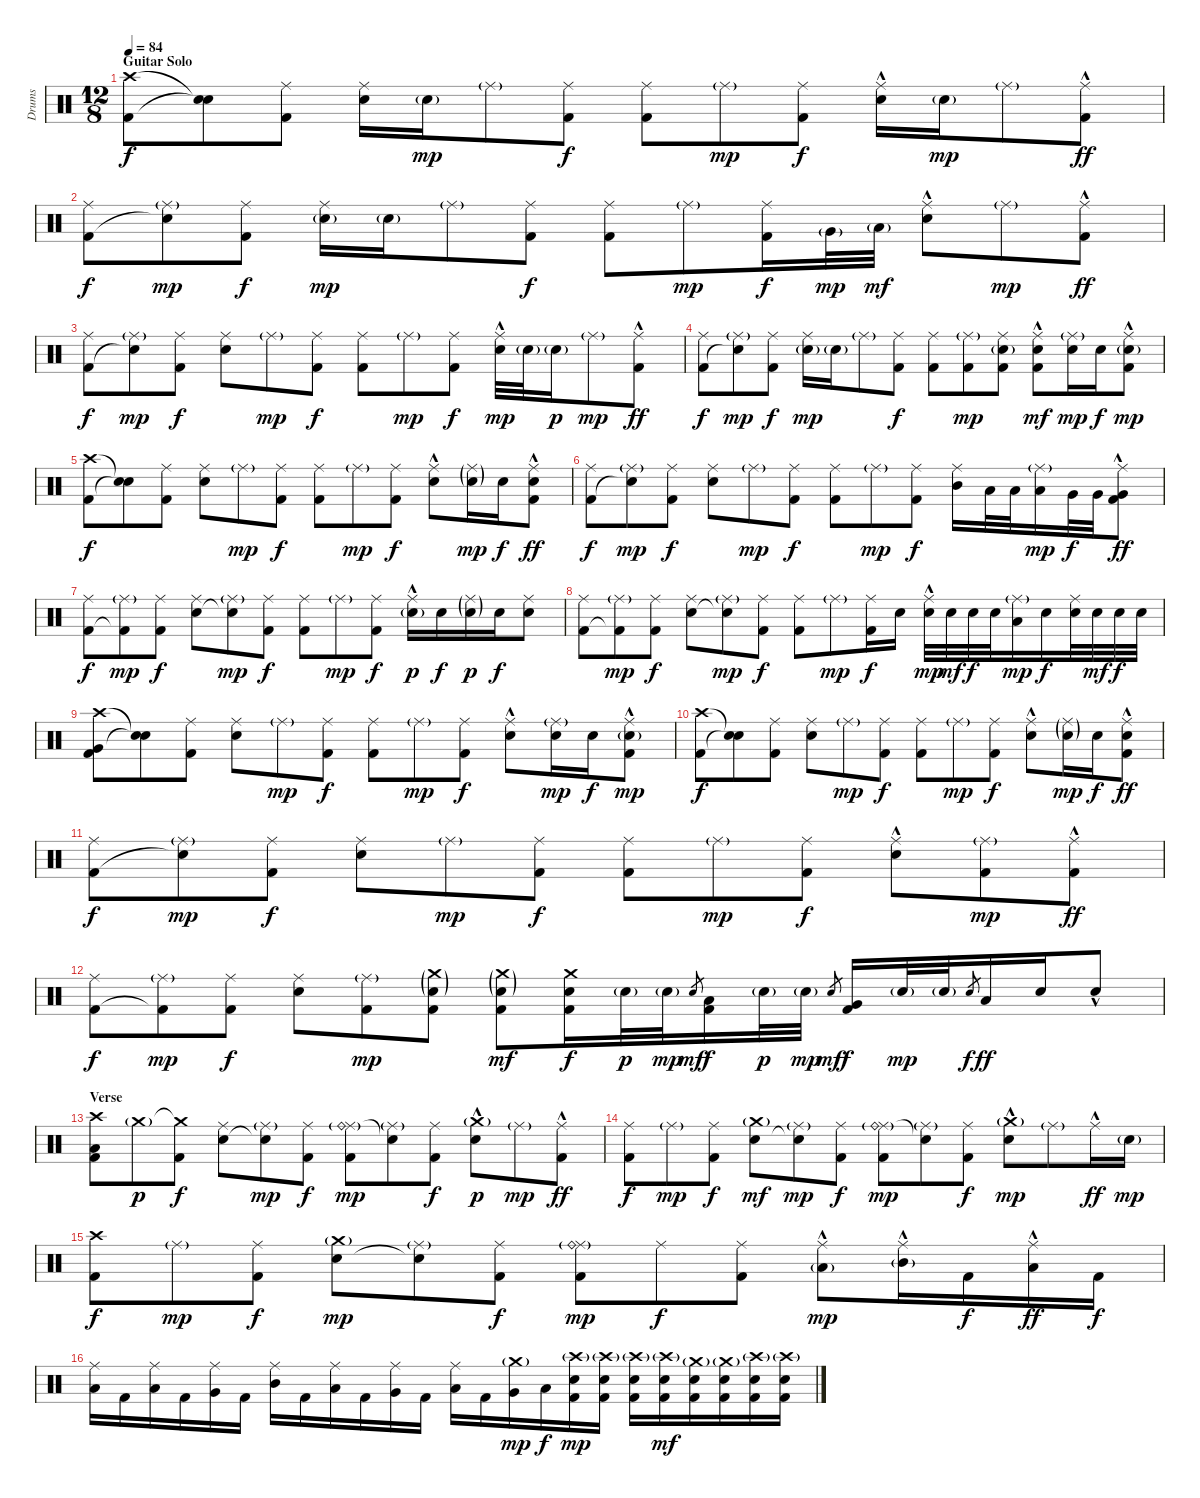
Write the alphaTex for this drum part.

\track ("Drums" "Drums") {instrument percussion}
\staff {score}
\articulation defaults
\ts (12 8)
\section ("" "Guitar Solo")
\tempo 84
\clef neutral
\ks c
("Crash high (hit)" "Kick (hit) 2").8{dy f} ("Snare (hit)"{t} "Snare (hit)"{t}).8 ("Ride (middle)" "Kick (hit) 2").8 ("Ride (middle)" "Electric Snare (hit)").16 "Electric Snare (hit)"{g}.16{dy mp} "Ride (middle)"{g}.8 ("Ride (middle)" "Kick (hit) 2").8{dy f} ("Ride (middle)" "Kick (hit) 2").8 "Ride (middle)"{g}.8{dy mp} ("Ride (middle)" "Kick (hit) 2").8{dy f} ("Ride (middle)" "Electric Snare (hit)"{hac}).16 "Electric Snare (hit)"{g}.16{dy mp} "Ride (middle)"{g}.8 ("Ride (middle)"{hac} "Kick (hit) 2").8{dy ff} |
("Ride (middle)" "Kick (hit) 2").8{dy f} ("Ride (middle)"{g} "Snare (hit)"{t}).8{dy mp} ("Ride (middle)" "Kick (hit) 2").8{dy f} ("Ride (middle)" "Electric Snare (hit)"{g}).16{dy mp} "Electric Snare (hit)"{g}.16 "Ride (middle)"{g}.8 ("Ride (middle)" "Kick (hit) 2").8{dy f} ("Ride (middle)" "Kick (hit) 2").8 "Ride (middle)"{g}.8{dy mp} ("Ride (middle)" "Kick (hit) 2").16{dy f} "Very Low Tom (hit)"{g}.32{dy mp} "Low Tom (hit)"{g}.32{dy mf} ("Ride (middle)" "Electric Snare (hit)"{hac}).8 "Ride (middle)"{g}.8{dy mp} ("Ride (middle)"{hac} "Kick (hit) 2").8{dy ff} |
("Ride (middle)" "Kick (hit) 2").8{dy f} ("Ride (middle)"{g} "Snare (hit)"{t}).8{dy mp} ("Ride (middle)" "Kick (hit) 2").8{dy f} ("Ride (middle)" "Electric Snare (hit)").8 "Ride (middle)"{g}.8{dy mp} ("Ride (middle)" "Kick (hit) 2").8{dy f} ("Ride (middle)" "Kick (hit) 2").8 "Ride (middle)"{g}.8{dy mp} ("Ride (middle)" "Kick (hit) 2").8{dy f} ("Ride (middle)" "Electric Snare (hit)"{hac}).32{dy mp} "Electric Snare (hit)"{g}.32 "Electric Snare (hit)"{g}.16{dy p} "Ride (middle)"{g}.8{dy mp} ("Ride (middle)"{hac} "Kick (hit) 2").8{dy ff} |
("Ride (middle)" "Kick (hit) 2").8{dy f} ("Ride (middle)"{g} "Snare (hit)"{t}).8{dy mp} ("Ride (middle)" "Kick (hit) 2").8{dy f} ("Ride (middle)" "Electric Snare (hit)"{g}).16{dy mp} "Electric Snare (hit)"{g}.16 "Ride (middle)"{g}.8 ("Ride (middle)" "Kick (hit) 2").8{dy f} ("Ride (middle)" "Kick (hit) 2").8 ("Ride (middle)"{g} "Kick (hit) 2").8{dy mp} ("Ride (middle)" "Electric Snare (hit)"{g} "Kick (hit) 2").8 ("Ride (middle)" "Electric Snare (hit)"{hac} "Kick (hit) 2").8{dy mf} ("Ride (middle)"{g} "Electric Snare (hit)").16{dy mp} "Electric Snare (hit)".16{dy f} ("Ride (middle)"{hac} "Electric Snare (hit)"{g} "Kick (hit) 2").8{dy mp} |
("Crash high (hit)" "Kick (hit) 2").8{dy f} ("Snare (hit)"{t} "Snare (hit)"{t}).8 ("Ride (middle)" "Kick (hit) 2").8 ("Ride (middle)" "Electric Snare (hit)").8 "Ride (middle)"{g}.8{dy mp} ("Ride (middle)" "Kick (hit) 2").8{dy f} ("Ride (middle)" "Kick (hit) 2").8 "Ride (middle)"{g}.8{dy mp} ("Ride (middle)" "Kick (hit) 2").8{dy f} ("Ride (middle)" "Electric Snare (hit)"{hac}).8 ("Ride (middle)"{g} "Electric Snare (hit)"{g}).16{dy mp} "Electric Snare (hit)".16{dy f} ("Ride (middle)"{hac} "Electric Snare (hit)" "Kick (hit) 2").8{dy ff} |
("Ride (middle)" "Kick (hit) 2").8{dy f} ("Ride (middle)"{g} "Snare (hit)"{t}).8{dy mp} ("Ride (middle)" "Kick (hit) 2").8{dy f} ("Ride (middle)" "Electric Snare (hit)").8 "Ride (middle)"{g}.8{dy mp} ("Ride (middle)" "Kick (hit) 2").8{dy f} ("Ride (middle)" "Kick (hit) 2").8 "Ride (middle)"{g}.8{dy mp} ("Ride (middle)" "Kick (hit) 2").8{dy f} ("Ride (middle)" "Mid Tom (hit)").16 "Low Tom (hit)".32 "Low Tom (hit)".32 ("Ride (middle)"{g} "Low Tom (hit)").16{dy mp} "Very Low Tom (hit)".32{dy f} "Very Low Tom (hit)".32 ("Ride (middle)"{hac} "Very Low Tom (hit)" "Kick (hit) 2").8{dy ff} |
("Ride (middle)" "Kick (hit) 2").8{dy f} ("Ride (middle)"{g} "Kick (hit) 2"{t}).8{dy mp} ("Ride (middle)" "Kick (hit) 2").8{dy f} ("Ride (middle)" "Electric Snare (hit)").8 ("Ride (middle)"{g} "Snare (hit)"{t}).8{dy mp} ("Ride (middle)" "Kick (hit) 2").8{dy f} ("Ride (middle)" "Kick (hit) 2").8 "Ride (middle)"{g}.8{dy mp} ("Ride (middle)" "Kick (hit) 2").8{dy f} ("Ride (middle)" "Electric Snare (hit)"{g hac}).16{dy p} "Electric Snare (hit)".16{dy f} ("Ride (middle)"{g} "Electric Snare (hit)"{g}).16{dy p} "Electric Snare (hit)".16{dy f} ("Ride (middle)" "Electric Snare (hit)").8 |
("Ride (middle)" "Kick (hit) 2").8 ("Ride (middle)"{g} "Kick (hit) 2"{t}).8{dy mp} ("Ride (middle)" "Kick (hit) 2").8{dy f} ("Ride (middle)" "Electric Snare (hit)").8 ("Ride (middle)"{g} "Snare (hit)"{t}).8{dy mp} ("Ride (middle)" "Kick (hit) 2").8{dy f} ("Ride (middle)" "Kick (hit) 2").8 "Ride (middle)"{g}.8{dy mp} ("Ride (middle)" "Kick (hit) 2").16{dy f} "Electric Snare (hit)".16 ("Ride (middle)" "Electric Snare (hit)"{hac}).32{dy mp} "Electric Snare (hit)".32{dy mf} "Electric Snare (hit)".32{dy f} "Electric Snare (hit)".32 ("Ride (middle)"{g} "Low Tom (hit)").16{dy mp} "Electric Snare (hit)".16{dy f} ("Ride (middle)" "Electric Snare (hit)").32 "Electric Snare (hit)".32{dy mf} "Electric Snare (hit)".32{dy f} "Electric Snare (hit)".32 |
("Crash high (hit)" "Very Low Tom (hit)" "Kick (hit) 2").8 ("Snare (hit)"{t} "Snare (hit)"{t}).8 ("Ride (middle)" "Kick (hit) 2").8 ("Ride (middle)" "Electric Snare (hit)").8 "Ride (middle)"{g}.8{dy mp} ("Ride (middle)" "Kick (hit) 2").8{dy f} ("Ride (middle)" "Kick (hit) 2").8 "Ride (middle)"{g}.8{dy mp} ("Ride (middle)" "Kick (hit) 2").8{dy f} ("Ride (middle)" "Electric Snare (hit)"{hac}).8 ("Ride (middle)"{g} "Electric Snare (hit)").16{dy mp} "Electric Snare (hit)".16{dy f} ("Ride (middle)"{hac} "Electric Snare (hit)"{g} "Kick (hit) 2").8{dy mp} |
("Crash high (hit)" "Kick (hit) 2").8{dy f} ("Snare (hit)"{t} "Snare (hit)"{t}).8 ("Ride (middle)" "Kick (hit) 2").8 ("Ride (middle)" "Electric Snare (hit)").8 "Ride (middle)"{g}.8{dy mp} ("Ride (middle)" "Kick (hit) 2").8{dy f} ("Ride (middle)" "Kick (hit) 2").8 "Ride (middle)"{g}.8{dy mp} ("Ride (middle)" "Kick (hit) 2").8{dy f} ("Ride (middle)" "Electric Snare (hit)"{hac}).8 ("Ride (middle)"{g} "Electric Snare (hit)"{g}).16{dy mp} "Electric Snare (hit)".16{dy f} ("Ride (middle)"{hac} "Electric Snare (hit)" "Kick (hit) 2").8{dy ff} |
("Ride (middle)" "Kick (hit) 2").8{dy f} ("Ride (middle)"{g} "Snare (hit)"{t}).8{dy mp} ("Ride (middle)" "Kick (hit) 2").8{dy f} ("Ride (middle)" "Electric Snare (hit)").8 "Ride (middle)"{g}.8{dy mp} ("Ride (middle)" "Kick (hit) 2").8{dy f} ("Ride (middle)" "Kick (hit) 2").8 "Ride (middle)"{g}.8{dy mp} ("Ride (middle)" "Kick (hit) 2").8{dy f} ("Ride (middle)" "Electric Snare (hit)"{hac}).8 ("Ride (middle)"{g} "Kick (hit) 2").8{dy mp} ("Ride (middle)"{hac} "Kick (hit) 2").8{dy ff} |
("Ride (middle)" "Kick (hit) 2").8{dy f} ("Ride (middle)"{g} "Kick (hit) 2"{t}).8{dy mp} ("Ride (middle)" "Kick (hit) 2").8{dy f} ("Ride (middle)" "Electric Snare (hit)").8 ("Ride (middle)"{g} "Kick (hit) 2").8{dy mp} ("Crash medium (hit)"{g} "Electric Snare (hit)"{g} "Kick (hit) 2").8 ("Crash medium (hit)"{g} "Electric Snare (hit)"{g} "Kick (hit) 2").8{dy mf} ("Crash medium (hit)" "Electric Snare (hit)" "Kick (hit) 2").16{dy f} "Electric Snare (hit)"{g}.32{dy p} "Electric Snare (hit)"{g}.32{dy mp} "Electric Snare (hit)".8{gr dy mf} ("Low Tom (hit)" "Kick (hit) 2").16{dy f} "Electric Snare (hit)"{g}.32{dy p} "Electric Snare (hit)"{g}.32{dy mp} "Electric Snare (hit)".8{gr dy mf} ("Very Low Tom (hit)" "Kick (hit) 2").16{dy f} "Electric Snare (hit)"{g}.32{dy mp} "Electric Snare (hit)"{g}.32 "Electric Snare (hit)".8{gr dy f} "Low Tom (hit)".16{dy ff} "Electric Snare (hit)".16 "Electric Snare (hit)"{hac}.8 |
\section ("" "Verse")
("Crash high (hit)" "Low Tom (hit)" "Kick (hit) 2").8 "Crash medium (hit)"{g}.8{dy p} ("Crash medium (hit)"{t} "Kick (hit) 2").8{dy f} ("Ride (middle)" "Electric Snare (hit)").8 ("Ride (middle)"{g} "Snare (hit)"{t}).8{dy mp} ("Ride (middle)" "Kick (hit) 2").8{dy f} ("Ride (middle)" "Ride (bell)"{g} "Kick (hit) 2").8{dy mp} ("Ride (middle)"{g} "Snare (hit)"{t}).8 ("Ride (middle)" "Kick (hit) 2").8{dy f} ("Crash medium (hit)"{g} "Electric Snare (hit)"{hac}).8{dy p} "Ride (middle)"{g}.8{dy mp} ("Ride (middle)"{hac} "Kick (hit) 2").8{dy ff} |
("Ride (middle)" "Kick (hit) 2").8{dy f} "Ride (middle)"{g}.8{dy mp} ("Ride (middle)" "Kick (hit) 2").8{dy f} ("Crash medium (hit)"{g} "Electric Snare (hit)").8{dy mf} ("Ride (middle)"{g} "Snare (hit)"{t}).8{dy mp} ("Ride (middle)" "Kick (hit) 2").8{dy f} ("Ride (middle)" "Ride (bell)"{g} "Kick (hit) 2").8{dy mp} ("Ride (middle)"{g} "Snare (hit)"{t}).8 ("Ride (middle)" "Kick (hit) 2").8{dy f} ("Crash medium (hit)"{g} "Electric Snare (hit)"{hac}).8{dy mp} "Ride (middle)"{g}.8 "Ride (middle)"{hac}.16{dy ff} "Electric Snare (hit)"{g}.16{dy mp} |
("Crash high (hit)" "Kick (hit) 2").8{dy f} "Ride (middle)"{g}.8{dy mp} ("Ride (middle)" "Kick (hit) 2").8{dy f} ("Crash medium (hit)"{g} "Electric Snare (hit)").8{dy mp} ("Ride (middle)"{g} "Snare (hit)"{t}).8 ("Ride (middle)" "Kick (hit) 2").8{dy f} ("Ride (middle)" "Ride (bell)"{g} "Kick (hit) 2").8{dy mp} "Ride (middle)".8{dy f} ("Ride (middle)" "Kick (hit) 2").8 ("Ride (middle)" "Low Tom (hit)"{g hac}).8{dy mp} ("Ride (middle)"{hac} "Mid Tom (hit)"{g}).16 "Kick (hit) 2".16{dy f} ("Ride (middle)"{hac} "Low Tom (hit)").16{dy ff} "Kick (hit) 2".16{dy f} |
("Ride (middle)" "Low Tom (hit)").16 "Kick (hit) 2".16 ("Ride (middle)" "Low Tom (hit)").16 "Kick (hit) 2".16 ("Ride (middle)" "Very Low Tom (hit)").16 "Kick (hit) 2".16 ("Ride (middle)" "Mid Tom (hit)").16 "Kick (hit) 2".16 ("Ride (middle)" "Low Tom (hit)").16 "Kick (hit) 2".16 ("Ride (middle)" "Very Low Tom (hit)").16 "Kick (hit) 2".16 ("Ride (middle)" "Low Tom (hit)").16 "Kick (hit) 2".16 ("Crash medium (hit)"{g} "Very Low Tom (hit)").16{dy mp} "Low Tom (hit)".16{dy f} ("Crash high (hit)"{g} "Electric Snare (hit)" "Kick (hit) 2").16{dy mp} ("Crash high (hit)"{g} "Electric Snare (hit)" "Kick (hit) 2").16 ("Crash high (hit)"{g} "Electric Snare (hit)" "Kick (hit) 2").16 ("Crash high (hit)"{g} "Electric Snare (hit)" "Kick (hit) 2").16{dy mf} ("Crash medium (hit)"{g} "Electric Snare (hit)" "Kick (hit) 2").16 ("Crash medium (hit)"{g} "Electric Snare (hit)" "Kick (hit) 2").16 ("Crash high (hit)"{g} "Electric Snare (hit)" "Kick (hit) 2").16 ("Crash high (hit)"{g} "Electric Snare (hit)" "Kick (hit) 2").16
